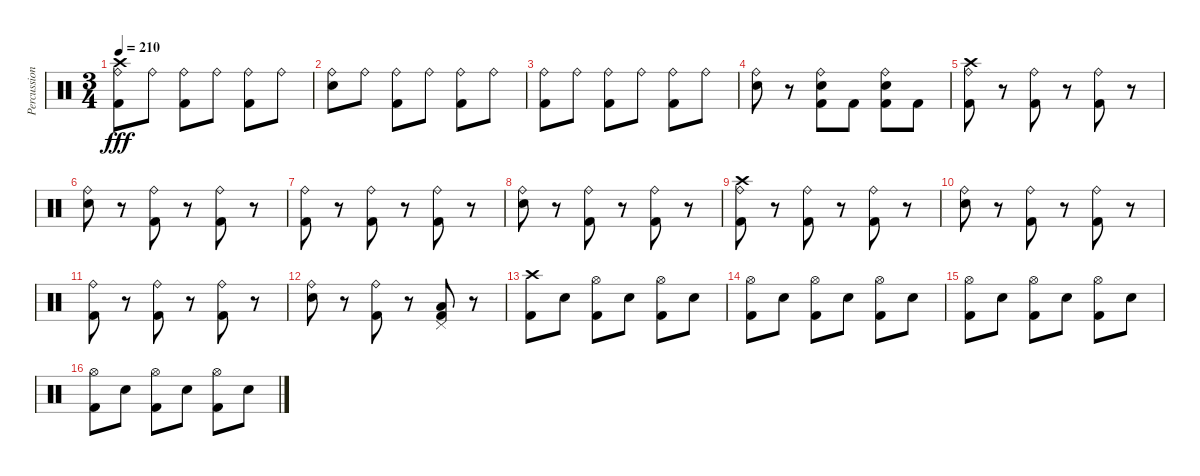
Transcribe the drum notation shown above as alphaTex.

\track ("Percussion" "Percussion") {instrument percussion}
\staff {score}
\articulation defaults
\ts (3 4)
\tempo 210
\clef neutral
\ks c
("Crash high (hit)" "Ride (bell)" "Kick (hit) 2").8{dy fff} "Ride (bell)".8 ("Ride (bell)" "Kick (hit) 2").8 "Ride (bell)".8 ("Ride (bell)" "Kick (hit) 2").8 "Ride (bell)".8 |
("Ride (bell)" "Electric Snare (hit)").8 "Ride (bell)".8 ("Ride (bell)" "Kick (hit) 2").8 "Ride (bell)".8 ("Ride (bell)" "Kick (hit) 2").8 "Ride (bell)".8 |
("Ride (bell)" "Kick (hit) 2").8 "Ride (bell)".8 ("Ride (bell)" "Kick (hit) 2").8 "Ride (bell)".8 ("Ride (bell)" "Kick (hit) 2").8 "Ride (bell)".8 |
("Ride (bell)" "Electric Snare (hit)").8 r.8 ("Ride (bell)" "Electric Snare (hit)" "Kick (hit) 2").8 "Kick (hit) 2".8 ("Ride (bell)" "Electric Snare (hit)" "Kick (hit) 2").8 "Kick (hit) 2".8 |
("Crash high (hit)" "Ride (bell)" "Kick (hit) 2").8 r.8 ("Ride (bell)" "Kick (hit) 2").8 r.8 ("Ride (bell)" "Kick (hit) 2").8 r.8 |
("Ride (bell)" "Electric Snare (hit)").8 r.8 ("Ride (bell)" "Kick (hit) 2").8 r.8 ("Ride (bell)" "Kick (hit) 2").8 r.8 |
("Ride (bell)" "Kick (hit) 2").8 r.8 ("Ride (bell)" "Kick (hit) 2").8 r.8 ("Ride (bell)" "Kick (hit) 2").8 r.8 |
("Ride (bell)" "Electric Snare (hit)").8 r.8 ("Ride (bell)" "Kick (hit) 2").8 r.8 ("Ride (bell)" "Kick (hit) 2").8 r.8 |
("Crash high (hit)" "Ride (bell)" "Kick (hit) 2").8 r.8 ("Ride (bell)" "Kick (hit) 2").8 r.8 ("Ride (bell)" "Kick (hit) 2").8 r.8 |
("Ride (bell)" "Electric Snare (hit)").8 r.8 ("Ride (bell)" "Kick (hit) 2").8 r.8 ("Ride (bell)" "Kick (hit) 2").8 r.8 |
("Ride (bell)" "Kick (hit) 2").8 r.8 ("Ride (bell)" "Kick (hit) 2").8 r.8 ("Ride (bell)" "Kick (hit) 2").8 r.8 |
("Ride (bell)" "Electric Snare (hit)").8 r.8 ("Ride (bell)" "Kick (hit) 2").8 r.8 ("Pedal Hi-Hat (hit)" "Low Floor Tom (hit)" "Kick (hit) 2").8 r.8 |
("Crash high (hit)" "Kick (hit) 2").8 "Electric Snare (hit)".8 ("Hi-Hat (open)" "Kick (hit) 2").8 "Electric Snare (hit)".8 ("Hi-Hat (open)" "Kick (hit) 2").8 "Electric Snare (hit)".8 |
("Hi-Hat (open)" "Kick (hit) 2").8 "Electric Snare (hit)".8 ("Hi-Hat (open)" "Kick (hit) 2").8 "Electric Snare (hit)".8 ("Hi-Hat (open)" "Kick (hit) 2").8 "Electric Snare (hit)".8 |
("Hi-Hat (open)" "Kick (hit) 2").8 "Electric Snare (hit)".8 ("Hi-Hat (open)" "Kick (hit) 2").8 "Electric Snare (hit)".8 ("Hi-Hat (open)" "Kick (hit) 2").8 "Electric Snare (hit)".8 |
("Hi-Hat (open)" "Kick (hit) 2").8 "Electric Snare (hit)".8 ("Hi-Hat (open)" "Kick (hit) 2").8 "Electric Snare (hit)".8 ("Hi-Hat (open)" "Kick (hit) 2").8 "Electric Snare (hit)".8
